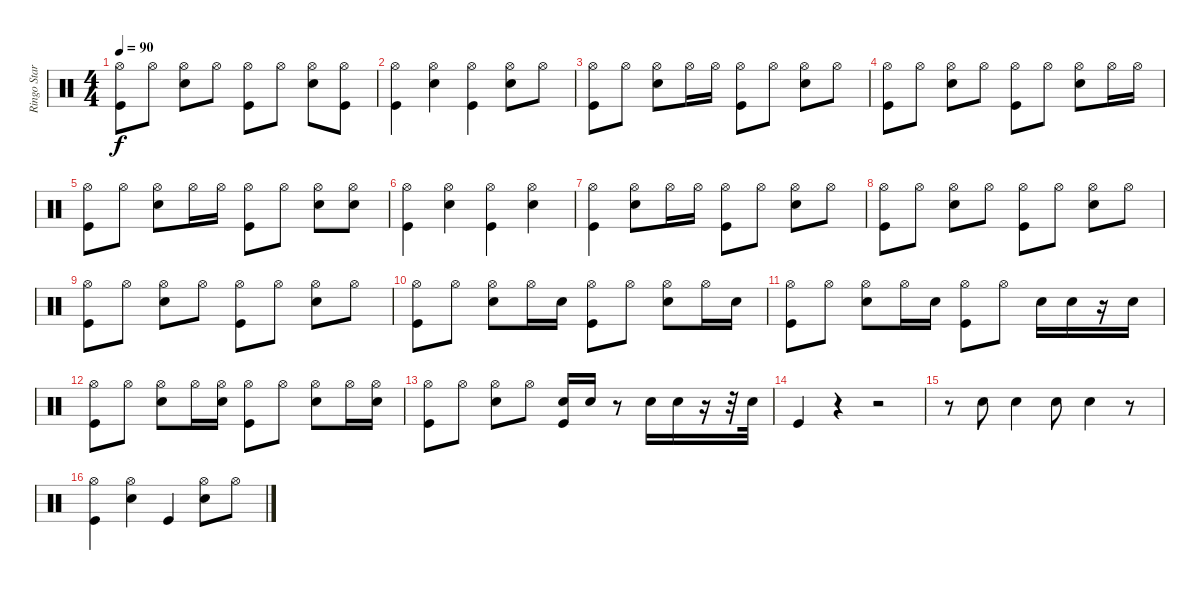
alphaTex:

\track ("Ringo Starr" "Ringo Star") {instrument percussion}
\staff {score}
\articulation defaults
\ts (4 4)
\tempo 90
\clef neutral
\ks c
("Hi-Hat (open)" "Kick (hit)").8{dy f} "Hi-Hat (open)".8 ("Hi-Hat (open)" "Snare (hit) 2").8 "Hi-Hat (open)".8 ("Hi-Hat (open)" "Kick (hit)").8 "Hi-Hat (open)".8 ("Hi-Hat (open)" "Snare (hit) 2").8 ("Hi-Hat (open)" "Kick (hit)").8 |
("Hi-Hat (open)" "Kick (hit)").4 ("Hi-Hat (open)" "Snare (hit) 2").4 ("Hi-Hat (open)" "Kick (hit)").4 ("Hi-Hat (open)" "Snare (hit) 2").8 "Hi-Hat (open)".8 |
("Hi-Hat (open)" "Kick (hit)").8 "Hi-Hat (open)".8 ("Hi-Hat (open)" "Snare (hit) 2").8 "Hi-Hat (open)".16 "Hi-Hat (open)".16 ("Hi-Hat (open)" "Kick (hit)").8 "Hi-Hat (open)".8 ("Hi-Hat (open)" "Snare (hit) 2").8 "Hi-Hat (open)".8 |
("Hi-Hat (open)" "Kick (hit)").8 "Hi-Hat (open)".8 ("Hi-Hat (open)" "Snare (hit) 2").8 "Hi-Hat (open)".8 ("Hi-Hat (open)" "Kick (hit)").8 "Hi-Hat (open)".8 ("Hi-Hat (open)" "Snare (hit) 2").8 "Hi-Hat (open)".16 "Hi-Hat (open)".16 |
("Hi-Hat (open)" "Kick (hit)").8 "Hi-Hat (open)".8 ("Hi-Hat (open)" "Snare (hit) 2").8 "Hi-Hat (open)".16 "Hi-Hat (open)".16 ("Hi-Hat (open)" "Kick (hit)").8 "Hi-Hat (open)".8 ("Hi-Hat (open)" "Snare (hit) 2").8 ("Hi-Hat (open)" "Snare (hit) 2").8 |
("Hi-Hat (open)" "Kick (hit)").4 ("Hi-Hat (open)" "Snare (hit) 2").4 ("Hi-Hat (open)" "Kick (hit)").4 ("Hi-Hat (open)" "Snare (hit) 2").4 |
("Hi-Hat (open)" "Kick (hit)").4 ("Hi-Hat (open)" "Snare (hit) 2").8 "Hi-Hat (open)".16 "Hi-Hat (open)".16 ("Hi-Hat (open)" "Kick (hit)").8 "Hi-Hat (open)".8 ("Hi-Hat (open)" "Snare (hit) 2").8 "Hi-Hat (open)".8 |
("Hi-Hat (open)" "Kick (hit)").8 "Hi-Hat (open)".8 ("Hi-Hat (open)" "Snare (hit) 2").8 "Hi-Hat (open)".8 ("Hi-Hat (open)" "Kick (hit)").8 "Hi-Hat (open)".8 ("Hi-Hat (open)" "Snare (hit) 2").8 "Hi-Hat (open)".8 |
("Hi-Hat (open)" "Kick (hit)").8 "Hi-Hat (open)".8 ("Hi-Hat (open)" "Snare (hit) 2").8 "Hi-Hat (open)".8 ("Hi-Hat (open)" "Kick (hit)").8 "Hi-Hat (open)".8 ("Hi-Hat (open)" "Snare (hit) 2").8 "Hi-Hat (open)".8 |
("Hi-Hat (open)" "Kick (hit)").8 "Hi-Hat (open)".8 ("Hi-Hat (open)" "Snare (hit) 2").8 "Hi-Hat (open)".16 "Snare (hit) 2".16 ("Hi-Hat (open)" "Kick (hit)").8 "Hi-Hat (open)".8 ("Hi-Hat (open)" "Snare (hit) 2").8 "Hi-Hat (open)".16 "Snare (hit) 2".16 |
("Hi-Hat (open)" "Kick (hit)").8 "Hi-Hat (open)".8 ("Hi-Hat (open)" "Snare (hit) 2").8 "Hi-Hat (open)".16 "Snare (hit) 2".16 ("Hi-Hat (open)" "Kick (hit)").8 "Hi-Hat (open)".8 "Snare (hit) 2".16 "Snare (hit) 2".16 r.16 "Snare (hit) 2".16 |
("Hi-Hat (open)" "Kick (hit)").8 "Hi-Hat (open)".8 ("Hi-Hat (open)" "Snare (hit) 2").8 "Hi-Hat (open)".16 ("Hi-Hat (open)" "Snare (hit) 2").16 ("Hi-Hat (open)" "Kick (hit)").8 "Hi-Hat (open)".8 ("Hi-Hat (open)" "Snare (hit) 2").8 "Hi-Hat (open)".16 ("Hi-Hat (open)" "Snare (hit) 2").16 |
("Hi-Hat (open)" "Kick (hit)").8 "Hi-Hat (open)".8 ("Hi-Hat (open)" "Snare (hit) 2").8 "Hi-Hat (open)".8 ("Snare (hit) 2" "Kick (hit)").16 "Snare (hit) 2".16 r.8 "Snare (hit) 2".16 "Snare (hit) 2".16 r.16 r.32 "Snare (hit) 2".32 |
"Kick (hit)".4 r.4 r.2 |
r.8 "Snare (hit) 2".8 "Snare (hit) 2".4 "Snare (hit) 2".8 "Snare (hit) 2".4 r.8 |
("Hi-Hat (open)" "Kick (hit)").4 ("Hi-Hat (open)" "Snare (hit) 2").4 "Kick (hit)".4 ("Hi-Hat (open)" "Snare (hit) 2").8 "Hi-Hat (open)".8
